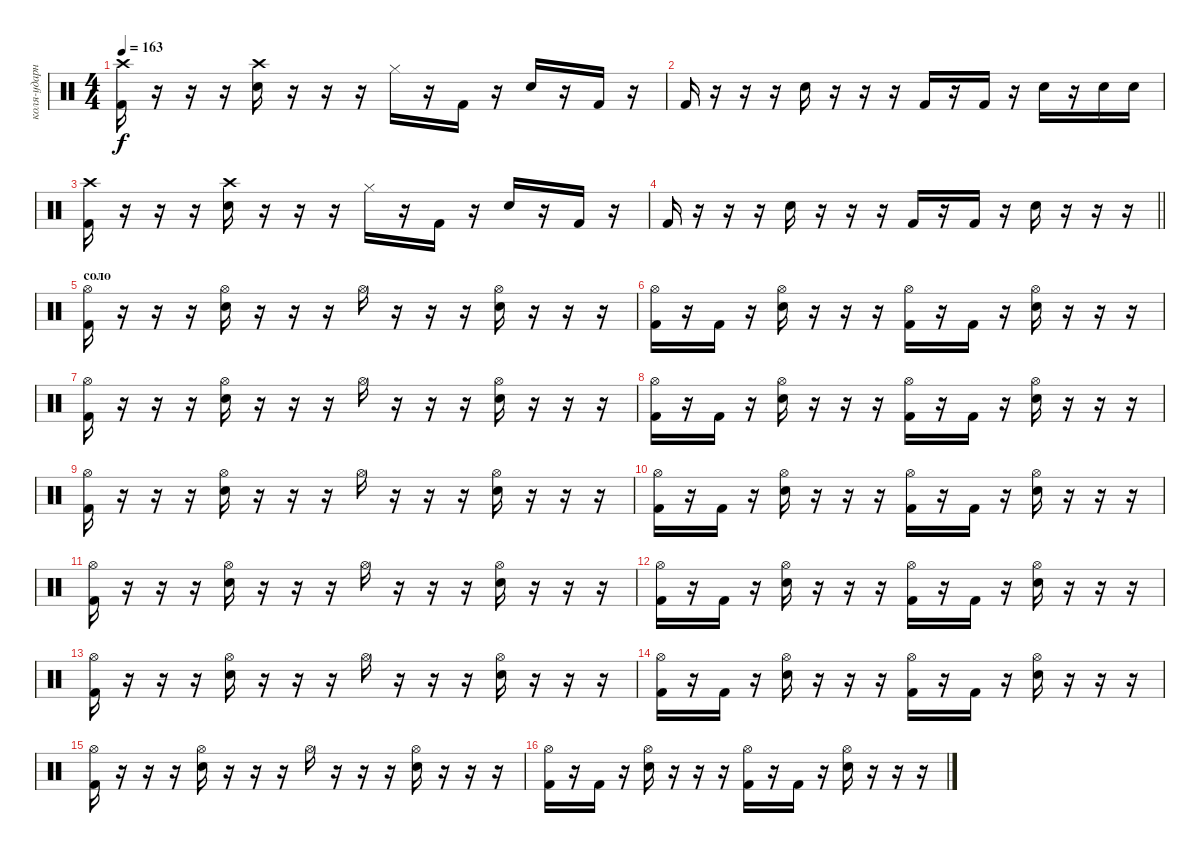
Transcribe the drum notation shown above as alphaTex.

\track ("коля-ударные" "коля-ударн") {instrument percussion}
\staff {score}
\articulation defaults
\ts (4 4)
\tempo 163
\clef neutral
\ks c
("Kick (hit) 2" "Crash high (hit)").16{dy f} r.16 r.16 r.16 ("Electric Snare (hit)" "Crash high (hit)").16 r.16 r.16 r.16 "Hi-Hat (closed)".16 r.16 "Kick (hit) 2".16 r.16 "Electric Snare (hit)".16 r.16 "Kick (hit) 2".16 r.16 |
"Kick (hit) 2".16 r.16 r.16 r.16 "Electric Snare (hit)".16 r.16 r.16 r.16 "Kick (hit) 2".16 r.16 "Kick (hit) 2".16 r.16 "Electric Snare (hit)".16 r.16 "Electric Snare (hit)".16 "Electric Snare (hit)".16 |
("Kick (hit) 2" "Crash high (hit)").16 r.16 r.16 r.16 ("Electric Snare (hit)" "Crash high (hit)").16 r.16 r.16 r.16 "Hi-Hat (closed)".16 r.16 "Kick (hit) 2".16 r.16 "Electric Snare (hit)".16 r.16 "Kick (hit) 2".16 r.16 |
\barLineRight lightlight "Kick (hit) 2".16
r.16 r.16 r.16 "Electric Snare (hit)".16 r.16 r.16 r.16 "Kick (hit) 2".16 r.16 "Kick (hit) 2".16 r.16 "Electric Snare (hit)".16 r.16 r.16 r.16 |
\section ("" "соло")
("Kick (hit) 2" "Hi-Hat (open)").16 r.16 r.16 r.16 ("Electric Snare (hit)" "Hi-Hat (open)").16 r.16 r.16 r.16 "Hi-Hat (open)".16 r.16 r.16 r.16 ("Electric Snare (hit)" "Hi-Hat (open)").16 r.16 r.16 r.16 |
("Kick (hit) 2" "Hi-Hat (open)").16 r.16 "Kick (hit) 2".16 r.16 ("Electric Snare (hit)" "Hi-Hat (open)").16 r.16 r.16 r.16 ("Kick (hit) 2" "Hi-Hat (open)").16 r.16 "Kick (hit) 2".16 r.16 ("Electric Snare (hit)" "Hi-Hat (open)").16 r.16 r.16 r.16 |
("Kick (hit) 2" "Hi-Hat (open)").16 r.16 r.16 r.16 ("Electric Snare (hit)" "Hi-Hat (open)").16 r.16 r.16 r.16 "Hi-Hat (open)".16 r.16 r.16 r.16 ("Electric Snare (hit)" "Hi-Hat (open)").16 r.16 r.16 r.16 |
("Kick (hit) 2" "Hi-Hat (open)").16 r.16 "Kick (hit) 2".16 r.16 ("Electric Snare (hit)" "Hi-Hat (open)").16 r.16 r.16 r.16 ("Kick (hit) 2" "Hi-Hat (open)").16 r.16 "Kick (hit) 2".16 r.16 ("Electric Snare (hit)" "Hi-Hat (open)").16 r.16 r.16 r.16 |
("Kick (hit) 2" "Hi-Hat (open)").16 r.16 r.16 r.16 ("Electric Snare (hit)" "Hi-Hat (open)").16 r.16 r.16 r.16 "Hi-Hat (open)".16 r.16 r.16 r.16 ("Electric Snare (hit)" "Hi-Hat (open)").16 r.16 r.16 r.16 |
("Kick (hit) 2" "Hi-Hat (open)").16 r.16 "Kick (hit) 2".16 r.16 ("Electric Snare (hit)" "Hi-Hat (open)").16 r.16 r.16 r.16 ("Kick (hit) 2" "Hi-Hat (open)").16 r.16 "Kick (hit) 2".16 r.16 ("Electric Snare (hit)" "Hi-Hat (open)").16 r.16 r.16 r.16 |
("Kick (hit) 2" "Hi-Hat (open)").16 r.16 r.16 r.16 ("Electric Snare (hit)" "Hi-Hat (open)").16 r.16 r.16 r.16 "Hi-Hat (open)".16 r.16 r.16 r.16 ("Electric Snare (hit)" "Hi-Hat (open)").16 r.16 r.16 r.16 |
("Kick (hit) 2" "Hi-Hat (open)").16 r.16 "Kick (hit) 2".16 r.16 ("Electric Snare (hit)" "Hi-Hat (open)").16 r.16 r.16 r.16 ("Kick (hit) 2" "Hi-Hat (open)").16 r.16 "Kick (hit) 2".16 r.16 ("Electric Snare (hit)" "Hi-Hat (open)").16 r.16 r.16 r.16 |
("Kick (hit) 2" "Hi-Hat (open)").16 r.16 r.16 r.16 ("Electric Snare (hit)" "Hi-Hat (open)").16 r.16 r.16 r.16 "Hi-Hat (open)".16 r.16 r.16 r.16 ("Electric Snare (hit)" "Hi-Hat (open)").16 r.16 r.16 r.16 |
("Kick (hit) 2" "Hi-Hat (open)").16 r.16 "Kick (hit) 2".16 r.16 ("Electric Snare (hit)" "Hi-Hat (open)").16 r.16 r.16 r.16 ("Kick (hit) 2" "Hi-Hat (open)").16 r.16 "Kick (hit) 2".16 r.16 ("Electric Snare (hit)" "Hi-Hat (open)").16 r.16 r.16 r.16 |
("Kick (hit) 2" "Hi-Hat (open)").16 r.16 r.16 r.16 ("Electric Snare (hit)" "Hi-Hat (open)").16 r.16 r.16 r.16 "Hi-Hat (open)".16 r.16 r.16 r.16 ("Electric Snare (hit)" "Hi-Hat (open)").16 r.16 r.16 r.16 |
("Kick (hit) 2" "Hi-Hat (open)").16 r.16 "Kick (hit) 2".16 r.16 ("Electric Snare (hit)" "Hi-Hat (open)").16 r.16 r.16 r.16 ("Kick (hit) 2" "Hi-Hat (open)").16 r.16 "Kick (hit) 2".16 r.16 ("Electric Snare (hit)" "Hi-Hat (open)").16 r.16 r.16 r.16
